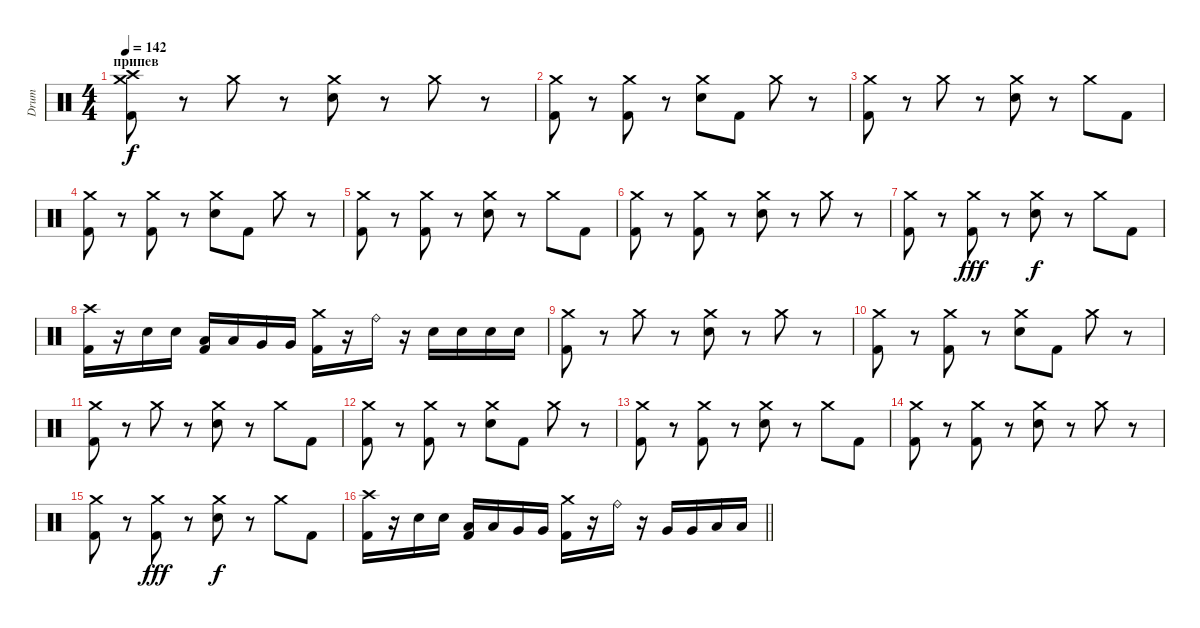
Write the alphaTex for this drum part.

\track ("Drum" "Drum") {instrument percussion}
\staff {score}
\articulation defaults
\ts (4 4)
\section ("" "припев")
\tempo 142
\clef neutral
\ks c
("Crash high (hit)" "Crash medium (hit)" "Kick (hit) 2").8{dy f} r.8 "Crash medium (hit)".8 r.8 ("Crash medium (hit)" "Snare (hit) 2").8 r.8 "Crash medium (hit)".8 r.8 |
("Crash medium (hit)" "Kick (hit) 2").8 r.8 ("Crash medium (hit)" "Kick (hit) 2").8 r.8 ("Crash medium (hit)" "Snare (hit) 2").8 "Kick (hit) 2".8 "Crash medium (hit)".8 r.8 |
("Crash medium (hit)" "Kick (hit) 2").8 r.8 "Crash medium (hit)".8 r.8 ("Crash medium (hit)" "Snare (hit) 2").8 r.8 "Crash medium (hit)".8 "Kick (hit) 2".8 |
("Crash medium (hit)" "Kick (hit) 2").8 r.8 ("Crash medium (hit)" "Kick (hit) 2").8 r.8 ("Crash medium (hit)" "Snare (hit) 2").8 "Kick (hit) 2".8 "Crash medium (hit)".8 r.8 |
("Crash medium (hit)" "Kick (hit) 2").8 r.8 ("Crash medium (hit)" "Kick (hit) 2").8 r.8 ("Crash medium (hit)" "Snare (hit) 2").8 r.8 "Crash medium (hit)".8 "Kick (hit) 2".8 |
("Crash medium (hit)" "Kick (hit) 2").8 r.8 ("Crash medium (hit)" "Kick (hit) 2").8 r.8 ("Crash medium (hit)" "Snare (hit) 2").8 r.8 "Crash medium (hit)".8 r.8 |
("Crash medium (hit)" "Kick (hit) 2").8 r.8 ("Crash medium (hit)" "Kick (hit) 2").8{dy fff} r.8 ("Crash medium (hit)" "Snare (hit) 2").8{dy f} r.8 "Crash medium (hit)".8 "Kick (hit) 2".8 |
("Crash high (hit)" "Kick (hit) 2").16 r.16 "Snare (hit) 2".16 "Snare (hit) 2".16 ("Kick (hit) 2" "Low Tom (hit)").16 "Low Tom (hit)".16 "Very Low Tom (hit)".16 "Very Low Tom (hit)".16 ("Crash medium (hit)" "Kick (hit) 2").16 r.16 "Ride (bell)".16 r.16 "Snare (hit) 2".16 "Snare (hit) 2".16 "Snare (hit) 2".16 "Snare (hit) 2".16 |
("Crash medium (hit)" "Kick (hit) 2").8 r.8 "Crash medium (hit)".8 r.8 ("Crash medium (hit)" "Snare (hit) 2").8 r.8 "Crash medium (hit)".8 r.8 |
("Crash medium (hit)" "Kick (hit) 2").8 r.8 ("Crash medium (hit)" "Kick (hit) 2").8 r.8 ("Crash medium (hit)" "Snare (hit) 2").8 "Kick (hit) 2".8 "Crash medium (hit)".8 r.8 |
("Crash medium (hit)" "Kick (hit) 2").8 r.8 "Crash medium (hit)".8 r.8 ("Crash medium (hit)" "Snare (hit) 2").8 r.8 "Crash medium (hit)".8 "Kick (hit) 2".8 |
("Crash medium (hit)" "Kick (hit) 2").8 r.8 ("Crash medium (hit)" "Kick (hit) 2").8 r.8 ("Crash medium (hit)" "Snare (hit) 2").8 "Kick (hit) 2".8 "Crash medium (hit)".8 r.8 |
("Crash medium (hit)" "Kick (hit) 2").8 r.8 ("Crash medium (hit)" "Kick (hit) 2").8 r.8 ("Crash medium (hit)" "Snare (hit) 2").8 r.8 "Crash medium (hit)".8 "Kick (hit) 2".8 |
("Crash medium (hit)" "Kick (hit) 2").8 r.8 ("Crash medium (hit)" "Kick (hit) 2").8 r.8 ("Crash medium (hit)" "Snare (hit) 2").8 r.8 "Crash medium (hit)".8 r.8 |
("Crash medium (hit)" "Kick (hit) 2").8 r.8 ("Crash medium (hit)" "Kick (hit) 2").8{dy fff} r.8 ("Crash medium (hit)" "Snare (hit) 2").8{dy f} r.8 "Crash medium (hit)".8 "Kick (hit) 2".8 |
\barLineRight lightlight
("Crash high (hit)" "Kick (hit) 2").16 r.16 "Snare (hit) 2".16 "Snare (hit) 2".16 ("Kick (hit) 2" "Low Tom (hit)").16 "Low Tom (hit)".16 "Very Low Tom (hit)".16 "Very Low Tom (hit)".16 ("Crash medium (hit)" "Kick (hit) 2").16 r.16 "Ride (bell)".16 r.16 "Very Low Tom (hit)".16 "Very Low Tom (hit)".16 "Low Floor Tom (hit)".16 "Low Floor Tom (hit)".16
